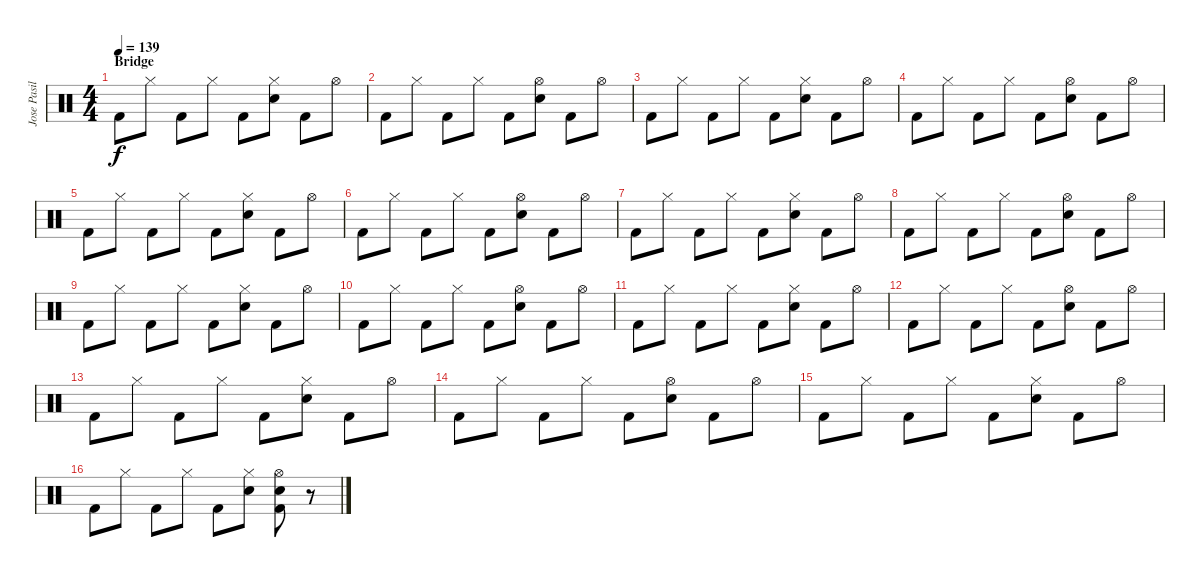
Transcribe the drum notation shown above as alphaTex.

\track ("Jose Pasillas - Drums" "Jose Pasil") {instrument percussion}
\staff {score}
\articulation defaults
\ts (4 4)
\section ("" "Bridge")
\tempo 139
\clef neutral
\ks c "Kick (hit) 2".8{dy f} "Hi-Hat (closed)".8 "Kick (hit) 2".8 "Hi-Hat (closed)".8 "Kick (hit) 2".8
("Electric Snare (hit)" "Hi-Hat (closed)").8 "Kick (hit) 2".8 "Hi-Hat (open)".8 |
"Kick (hit) 2".8 "Hi-Hat (closed)".8 "Kick (hit) 2".8 "Hi-Hat (closed)".8 "Kick (hit) 2".8 ("Electric Snare (hit)" "Hi-Hat (open)").8 "Kick (hit) 2".8 "Hi-Hat (open)".8 |
"Kick (hit) 2".8 "Hi-Hat (closed)".8 "Kick (hit) 2".8 "Hi-Hat (closed)".8 "Kick (hit) 2".8 ("Electric Snare (hit)" "Hi-Hat (closed)").8 "Kick (hit) 2".8 "Hi-Hat (open)".8 |
"Kick (hit) 2".8 "Hi-Hat (closed)".8 "Kick (hit) 2".8 "Hi-Hat (closed)".8 "Kick (hit) 2".8 ("Electric Snare (hit)" "Hi-Hat (open)").8 "Kick (hit) 2".8 "Hi-Hat (open)".8 |
"Kick (hit) 2".8 "Hi-Hat (closed)".8 "Kick (hit) 2".8 "Hi-Hat (closed)".8 "Kick (hit) 2".8 ("Electric Snare (hit)" "Hi-Hat (closed)").8 "Kick (hit) 2".8 "Hi-Hat (open)".8 |
"Kick (hit) 2".8 "Hi-Hat (closed)".8 "Kick (hit) 2".8 "Hi-Hat (closed)".8 "Kick (hit) 2".8 ("Electric Snare (hit)" "Hi-Hat (open)").8 "Kick (hit) 2".8 "Hi-Hat (open)".8 |
"Kick (hit) 2".8 "Hi-Hat (closed)".8 "Kick (hit) 2".8 "Hi-Hat (closed)".8 "Kick (hit) 2".8 ("Electric Snare (hit)" "Hi-Hat (closed)").8 "Kick (hit) 2".8 "Hi-Hat (open)".8 |
"Kick (hit) 2".8 "Hi-Hat (closed)".8 "Kick (hit) 2".8 "Hi-Hat (closed)".8 "Kick (hit) 2".8 ("Electric Snare (hit)" "Hi-Hat (open)").8 "Kick (hit) 2".8 "Hi-Hat (open)".8 |
"Kick (hit) 2".8 "Hi-Hat (closed)".8 "Kick (hit) 2".8 "Hi-Hat (closed)".8 "Kick (hit) 2".8 ("Electric Snare (hit)" "Hi-Hat (closed)").8 "Kick (hit) 2".8 "Hi-Hat (open)".8 |
"Kick (hit) 2".8 "Hi-Hat (closed)".8 "Kick (hit) 2".8 "Hi-Hat (closed)".8 "Kick (hit) 2".8 ("Electric Snare (hit)" "Hi-Hat (open)").8 "Kick (hit) 2".8 "Hi-Hat (open)".8 |
"Kick (hit) 2".8 "Hi-Hat (closed)".8 "Kick (hit) 2".8 "Hi-Hat (closed)".8 "Kick (hit) 2".8 ("Electric Snare (hit)" "Hi-Hat (closed)").8 "Kick (hit) 2".8 "Hi-Hat (open)".8 |
"Kick (hit) 2".8 "Hi-Hat (closed)".8 "Kick (hit) 2".8 "Hi-Hat (closed)".8 "Kick (hit) 2".8 ("Electric Snare (hit)" "Hi-Hat (open)").8 "Kick (hit) 2".8 "Hi-Hat (open)".8 |
"Kick (hit) 2".8 "Hi-Hat (closed)".8 "Kick (hit) 2".8 "Hi-Hat (closed)".8 "Kick (hit) 2".8 ("Electric Snare (hit)" "Hi-Hat (closed)").8 "Kick (hit) 2".8 "Hi-Hat (open)".8 |
"Kick (hit) 2".8 "Hi-Hat (closed)".8 "Kick (hit) 2".8 "Hi-Hat (closed)".8 "Kick (hit) 2".8 ("Electric Snare (hit)" "Hi-Hat (open)").8 "Kick (hit) 2".8 "Hi-Hat (open)".8 |
"Kick (hit) 2".8 "Hi-Hat (closed)".8 "Kick (hit) 2".8 "Hi-Hat (closed)".8 "Kick (hit) 2".8 ("Electric Snare (hit)" "Hi-Hat (closed)").8 "Kick (hit) 2".8 "Hi-Hat (open)".8 |
"Kick (hit) 2".8 "Hi-Hat (closed)".8 "Kick (hit) 2".8 "Hi-Hat (closed)".8 "Kick (hit) 2".8 ("Electric Snare (hit)" "Hi-Hat (closed)").8 ("Electric Snare (hit)" "Hi-Hat (open)" "Kick (hit) 2").8 r.8
